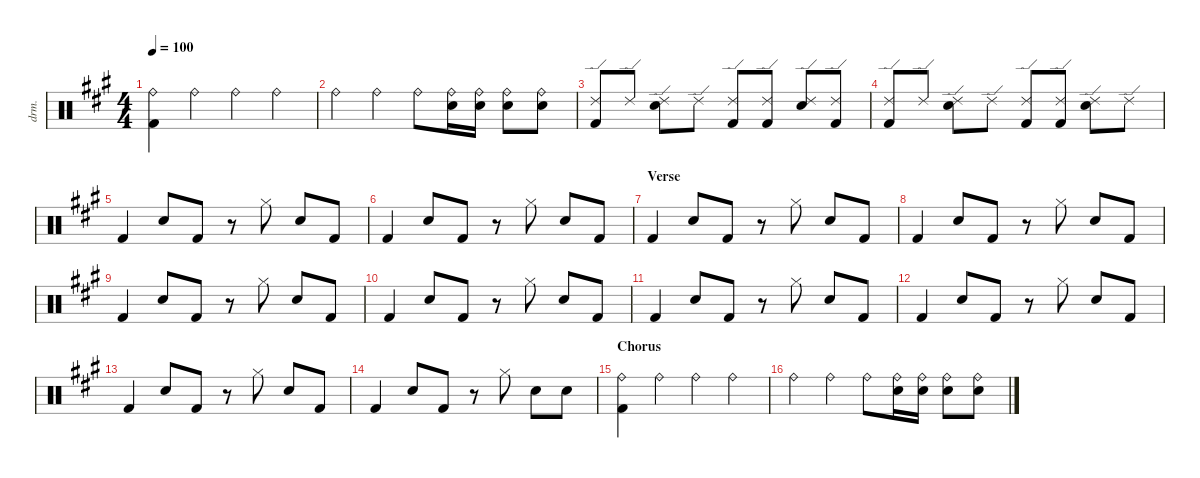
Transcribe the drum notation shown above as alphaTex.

\defaultSystemsLayout 4
\hideDynamics
\bracketExtendMode nobrackets
\track ("Drums" "drm.") {instrument percussion}
\staff {score}
\articulation defaults
\ts (4 4)
\tempo 100
\clef neutral
\ks a
("Ride (bell)"{acc forcenatural} "Kick (hit) 2"{acc forcenatural}).4{dy f} "Ride (bell)"{acc forcenatural}.4 "Ride (bell)"{acc forcenatural}.4 "Ride (bell)"{acc forcenatural}.4 |
"Ride (bell)"{acc forcenatural}.4 "Ride (bell)"{acc forcenatural}.4 "Ride (bell)"{acc forcenatural}.8 ("Ride (bell)"{acc forcenatural} "Snare (hit) 2"{acc forcenatural}).16 ("Ride (bell)"{acc forcenatural} "Snare (hit) 2"{acc forcenatural}).16 ("Ride (bell)"{acc forcenatural} "Snare (hit) 2"{acc forcenatural}).8 ("Ride (bell)"{acc forcenatural} "Snare (hit) 2"{acc forcenatural}).8 |
("Ride (edge) 2"{acc forcenatural} "Kick (hit) 2"{acc forcenatural}).8 "Ride (edge) 2"{acc forcenatural}.8 ("Ride (edge) 2"{acc forcenatural} "Snare (hit) 2"{acc forcenatural}).8 "Ride (edge) 2"{acc forcenatural}.8 ("Ride (edge) 2"{acc forcenatural} "Kick (hit) 2"{acc forcenatural}).8 ("Ride (edge) 2"{acc forcenatural} "Kick (hit) 2"{acc forcenatural}).8 ("Ride (edge) 2"{acc forcenatural} "Snare (hit) 2"{acc forcenatural}).8 ("Ride (edge) 2"{acc forcenatural} "Kick (hit) 2"{acc forcenatural}).8 |
("Ride (edge) 2"{acc forcenatural} "Kick (hit) 2"{acc forcenatural}).8 "Ride (edge) 2"{acc forcenatural}.8 ("Ride (edge) 2"{acc forcenatural} "Snare (hit) 2"{acc forcenatural}).8 "Ride (edge) 2"{acc forcenatural}.8 ("Ride (edge) 2"{acc forcenatural} "Kick (hit) 2"{acc forcenatural}).8 ("Ride (edge) 2"{acc forcenatural} "Kick (hit) 2"{acc forcenatural}).8 ("Ride (edge) 2"{acc forcenatural} "Snare (hit) 2"{acc forcenatural}).8 "Ride (edge) 2"{acc forcenatural}.8 |
"Kick (hit) 2"{acc forcenatural}.4 "Snare (hit) 2"{acc forcenatural}.8 "Kick (hit) 2"{acc forcenatural}.8 r.8 "Hi-Hat (closed)"{acc forcenatural}.8 "Snare (hit) 2"{acc forcenatural}.8 "Kick (hit) 2"{acc forcenatural}.8 |
"Kick (hit) 2"{acc forcenatural}.4 "Snare (hit) 2"{acc forcenatural}.8 "Kick (hit) 2"{acc forcenatural}.8 r.8 "Hi-Hat (closed)"{acc forcenatural}.8 "Snare (hit) 2"{acc forcenatural}.8 "Kick (hit) 2"{acc forcenatural}.8 |
\section ("" "Verse")
"Kick (hit) 2"{acc forcenatural}.4 "Snare (hit) 2"{acc forcenatural}.8 "Kick (hit) 2"{acc forcenatural}.8 r.8 "Hi-Hat (closed)"{acc forcenatural}.8 "Snare (hit) 2"{acc forcenatural}.8 "Kick (hit) 2"{acc forcenatural}.8 |
"Kick (hit) 2"{acc forcenatural}.4 "Snare (hit) 2"{acc forcenatural}.8 "Kick (hit) 2"{acc forcenatural}.8 r.8 "Hi-Hat (closed)"{acc forcenatural}.8 "Snare (hit) 2"{acc forcenatural}.8 "Kick (hit) 2"{acc forcenatural}.8 |
"Kick (hit) 2"{acc forcenatural}.4 "Snare (hit) 2"{acc forcenatural}.8 "Kick (hit) 2"{acc forcenatural}.8 r.8 "Hi-Hat (closed)"{acc forcenatural}.8 "Snare (hit) 2"{acc forcenatural}.8 "Kick (hit) 2"{acc forcenatural}.8 |
"Kick (hit) 2"{acc forcenatural}.4 "Snare (hit) 2"{acc forcenatural}.8 "Kick (hit) 2"{acc forcenatural}.8 r.8 "Hi-Hat (closed)"{acc forcenatural}.8 "Snare (hit) 2"{acc forcenatural}.8 "Kick (hit) 2"{acc forcenatural}.8 |
"Kick (hit) 2"{acc forcenatural}.4 "Snare (hit) 2"{acc forcenatural}.8 "Kick (hit) 2"{acc forcenatural}.8 r.8 "Hi-Hat (closed)"{acc forcenatural}.8 "Snare (hit) 2"{acc forcenatural}.8 "Kick (hit) 2"{acc forcenatural}.8 |
"Kick (hit) 2"{acc forcenatural}.4 "Snare (hit) 2"{acc forcenatural}.8 "Kick (hit) 2"{acc forcenatural}.8 r.8 "Hi-Hat (closed)"{acc forcenatural}.8 "Snare (hit) 2"{acc forcenatural}.8 "Kick (hit) 2"{acc forcenatural}.8 |
"Kick (hit) 2"{acc forcenatural}.4 "Snare (hit) 2"{acc forcenatural}.8 "Kick (hit) 2"{acc forcenatural}.8 r.8 "Hi-Hat (closed)"{acc forcenatural}.8 "Snare (hit) 2"{acc forcenatural}.8 "Kick (hit) 2"{acc forcenatural}.8 |
"Kick (hit) 2"{acc forcenatural}.4 "Snare (hit) 2"{acc forcenatural}.8 "Kick (hit) 2"{acc forcenatural}.8 r.8 "Hi-Hat (closed)"{acc forcenatural}.8 "Snare (hit) 2"{acc forcenatural}.8 "Snare (hit) 2"{acc forcenatural}.8 |
\section ("" "Chorus")
("Ride (bell)"{acc forcenatural} "Kick (hit) 2"{acc forcenatural}).4 "Ride (bell)"{acc forcenatural}.4 "Ride (bell)"{acc forcenatural}.4 "Ride (bell)"{acc forcenatural}.4 |
"Ride (bell)"{acc forcenatural}.4 "Ride (bell)"{acc forcenatural}.4 "Ride (bell)"{acc forcenatural}.8 ("Ride (bell)"{acc forcenatural} "Snare (hit) 2"{acc forcenatural}).16 ("Ride (bell)"{acc forcenatural} "Snare (hit) 2"{acc forcenatural}).16 ("Ride (bell)"{acc forcenatural} "Snare (hit) 2"{acc forcenatural}).8 ("Ride (bell)"{acc forcenatural} "Snare (hit) 2"{acc forcenatural}).8
